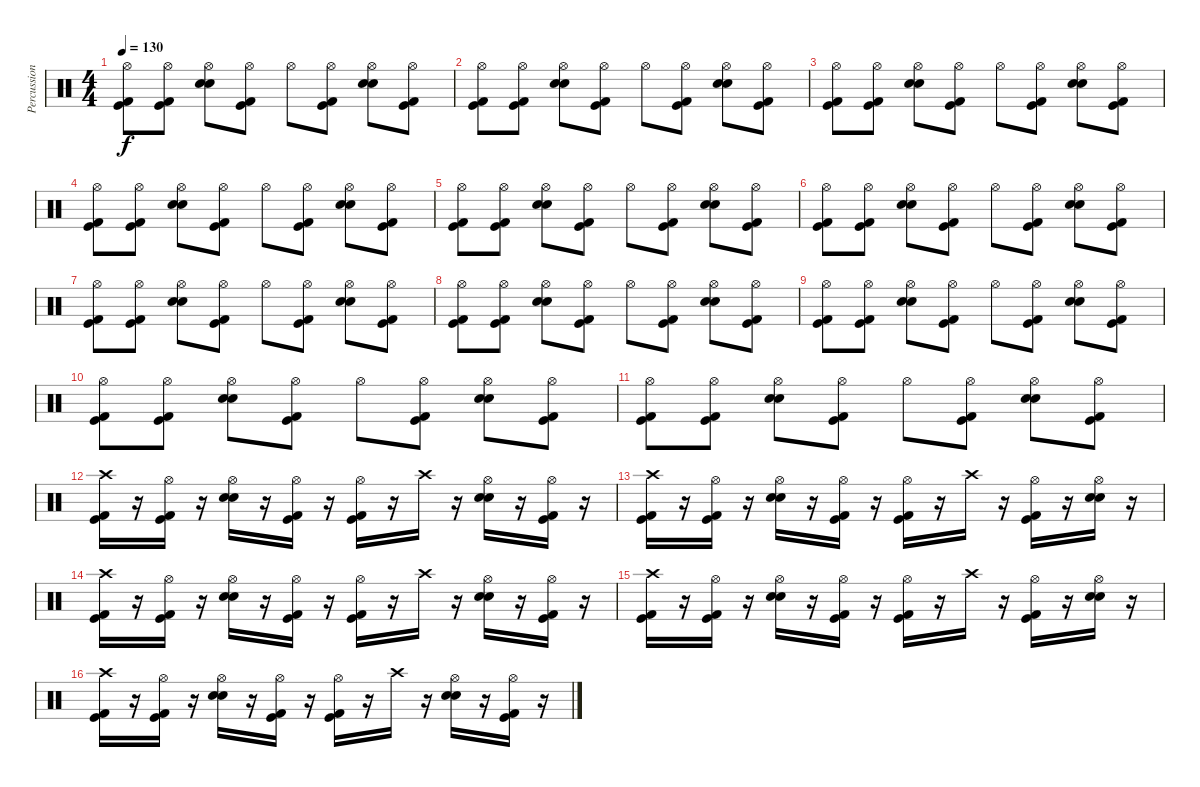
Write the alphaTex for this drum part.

\track ("Percussions" "Percussion") {instrument percussion}
\staff {score}
\articulation defaults
\ts (4 4)
\tempo 130
\clef neutral
\ks c
("Hi-Hat (open)" "Kick (hit)" "Kick (hit) 2").8{dy f} ("Hi-Hat (open)" "Kick (hit)" "Kick (hit) 2").8 ("Hi-Hat (open)" "Snare (hit) 2" "Electric Snare (hit)").8 ("Hi-Hat (open)" "Kick (hit)" "Kick (hit) 2").8 "Hi-Hat (open)".8 ("Hi-Hat (open)" "Kick (hit)" "Kick (hit) 2").8 ("Hi-Hat (open)" "Snare (hit) 2" "Electric Snare (hit)").8 ("Hi-Hat (open)" "Kick (hit)" "Kick (hit) 2").8 |
("Hi-Hat (open)" "Kick (hit)" "Kick (hit) 2").8 ("Hi-Hat (open)" "Kick (hit)" "Kick (hit) 2").8 ("Hi-Hat (open)" "Snare (hit) 2" "Electric Snare (hit)").8 ("Hi-Hat (open)" "Kick (hit)" "Kick (hit) 2").8 "Hi-Hat (open)".8 ("Hi-Hat (open)" "Kick (hit)" "Kick (hit) 2").8 ("Hi-Hat (open)" "Snare (hit) 2" "Electric Snare (hit)").8 ("Hi-Hat (open)" "Kick (hit)" "Kick (hit) 2").8 |
("Hi-Hat (open)" "Kick (hit)" "Kick (hit) 2").8 ("Hi-Hat (open)" "Kick (hit)" "Kick (hit) 2").8 ("Hi-Hat (open)" "Snare (hit) 2" "Electric Snare (hit)").8 ("Hi-Hat (open)" "Kick (hit)" "Kick (hit) 2").8 "Hi-Hat (open)".8 ("Hi-Hat (open)" "Kick (hit)" "Kick (hit) 2").8 ("Hi-Hat (open)" "Snare (hit) 2" "Electric Snare (hit)").8 ("Hi-Hat (open)" "Kick (hit)" "Kick (hit) 2").8 |
("Hi-Hat (open)" "Kick (hit)" "Kick (hit) 2").8 ("Hi-Hat (open)" "Kick (hit)" "Kick (hit) 2").8 ("Hi-Hat (open)" "Snare (hit) 2" "Electric Snare (hit)").8 ("Hi-Hat (open)" "Kick (hit)" "Kick (hit) 2").8 "Hi-Hat (open)".8 ("Hi-Hat (open)" "Kick (hit)" "Kick (hit) 2").8 ("Hi-Hat (open)" "Snare (hit) 2" "Electric Snare (hit)").8 ("Hi-Hat (open)" "Kick (hit)" "Kick (hit) 2").8 |
("Hi-Hat (open)" "Kick (hit)" "Kick (hit) 2").8 ("Hi-Hat (open)" "Kick (hit)" "Kick (hit) 2").8 ("Hi-Hat (open)" "Snare (hit) 2" "Electric Snare (hit)").8 ("Hi-Hat (open)" "Kick (hit)" "Kick (hit) 2").8 "Hi-Hat (open)".8 ("Hi-Hat (open)" "Kick (hit)" "Kick (hit) 2").8 ("Hi-Hat (open)" "Snare (hit) 2" "Electric Snare (hit)").8 ("Hi-Hat (open)" "Kick (hit)" "Kick (hit) 2").8 |
("Hi-Hat (open)" "Kick (hit)" "Kick (hit) 2").8 ("Hi-Hat (open)" "Kick (hit)" "Kick (hit) 2").8 ("Hi-Hat (open)" "Snare (hit) 2" "Electric Snare (hit)").8 ("Hi-Hat (open)" "Kick (hit)" "Kick (hit) 2").8 "Hi-Hat (open)".8 ("Hi-Hat (open)" "Kick (hit)" "Kick (hit) 2").8 ("Hi-Hat (open)" "Snare (hit) 2" "Electric Snare (hit)").8 ("Hi-Hat (open)" "Kick (hit)" "Kick (hit) 2").8 |
("Hi-Hat (open)" "Kick (hit)" "Kick (hit) 2").8 ("Hi-Hat (open)" "Kick (hit)" "Kick (hit) 2").8 ("Hi-Hat (open)" "Snare (hit) 2" "Electric Snare (hit)").8 ("Hi-Hat (open)" "Kick (hit)" "Kick (hit) 2").8 "Hi-Hat (open)".8 ("Hi-Hat (open)" "Kick (hit)" "Kick (hit) 2").8 ("Hi-Hat (open)" "Snare (hit) 2" "Electric Snare (hit)").8 ("Hi-Hat (open)" "Kick (hit)" "Kick (hit) 2").8 |
("Hi-Hat (open)" "Kick (hit)" "Kick (hit) 2").8 ("Hi-Hat (open)" "Kick (hit)" "Kick (hit) 2").8 ("Hi-Hat (open)" "Snare (hit) 2" "Electric Snare (hit)").8 ("Hi-Hat (open)" "Kick (hit)" "Kick (hit) 2").8 "Hi-Hat (open)".8 ("Hi-Hat (open)" "Kick (hit)" "Kick (hit) 2").8 ("Hi-Hat (open)" "Snare (hit) 2" "Electric Snare (hit)").8 ("Hi-Hat (open)" "Kick (hit)" "Kick (hit) 2").8 |
("Hi-Hat (open)" "Kick (hit)" "Kick (hit) 2").8 ("Hi-Hat (open)" "Kick (hit)" "Kick (hit) 2").8 ("Hi-Hat (open)" "Snare (hit) 2" "Electric Snare (hit)").8 ("Hi-Hat (open)" "Kick (hit)" "Kick (hit) 2").8 "Hi-Hat (open)".8 ("Hi-Hat (open)" "Kick (hit)" "Kick (hit) 2").8 ("Hi-Hat (open)" "Snare (hit) 2" "Electric Snare (hit)").8 ("Hi-Hat (open)" "Kick (hit)" "Kick (hit) 2").8 |
("Hi-Hat (open)" "Kick (hit)" "Kick (hit) 2").8 ("Hi-Hat (open)" "Kick (hit)" "Kick (hit) 2").8 ("Hi-Hat (open)" "Snare (hit) 2" "Electric Snare (hit)").8 ("Hi-Hat (open)" "Kick (hit)" "Kick (hit) 2").8 "Hi-Hat (open)".8 ("Hi-Hat (open)" "Kick (hit)" "Kick (hit) 2").8 ("Hi-Hat (open)" "Snare (hit) 2" "Electric Snare (hit)").8 ("Hi-Hat (open)" "Kick (hit)" "Kick (hit) 2").8 |
("Hi-Hat (open)" "Kick (hit)" "Kick (hit) 2").8 ("Hi-Hat (open)" "Kick (hit)" "Kick (hit) 2").8 ("Hi-Hat (open)" "Snare (hit) 2" "Electric Snare (hit)").8 ("Hi-Hat (open)" "Kick (hit)" "Kick (hit) 2").8 "Hi-Hat (open)".8 ("Hi-Hat (open)" "Kick (hit)" "Kick (hit) 2").8 ("Hi-Hat (open)" "Snare (hit) 2" "Electric Snare (hit)").8 ("Hi-Hat (open)" "Kick (hit)" "Kick (hit) 2").8 |
("Crash high (hit)" "Kick (hit)" "Kick (hit) 2").16 r.16 ("Hi-Hat (open)" "Kick (hit)" "Kick (hit) 2").16 r.16 ("Hi-Hat (open)" "Snare (hit) 2" "Electric Snare (hit)").16 r.16 ("Hi-Hat (open)" "Kick (hit)" "Kick (hit) 2").16 r.16 ("Hi-Hat (open)" "Kick (hit)" "Kick (hit) 2").16 r.16 "Crash high (hit)".16 r.16 ("Hi-Hat (open)" "Snare (hit) 2" "Electric Snare (hit)").16 r.16 ("Hi-Hat (open)" "Kick (hit)" "Kick (hit) 2").16 r.16 |
("Crash high (hit)" "Kick (hit)" "Kick (hit) 2").16 r.16 ("Hi-Hat (open)" "Kick (hit)" "Kick (hit) 2").16 r.16 ("Hi-Hat (open)" "Snare (hit) 2" "Electric Snare (hit)").16 r.16 ("Hi-Hat (open)" "Kick (hit)" "Kick (hit) 2").16 r.16 ("Hi-Hat (open)" "Kick (hit)" "Kick (hit) 2").16 r.16 "Crash high (hit)".16 r.16 ("Hi-Hat (open)" "Kick (hit)" "Kick (hit) 2").16 r.16 ("Hi-Hat (open)" "Snare (hit) 2" "Electric Snare (hit)").16 r.16 |
("Crash high (hit)" "Kick (hit)" "Kick (hit) 2").16 r.16 ("Hi-Hat (open)" "Kick (hit)" "Kick (hit) 2").16 r.16 ("Hi-Hat (open)" "Snare (hit) 2" "Electric Snare (hit)").16 r.16 ("Hi-Hat (open)" "Kick (hit)" "Kick (hit) 2").16 r.16 ("Hi-Hat (open)" "Kick (hit)" "Kick (hit) 2").16 r.16 "Crash high (hit)".16 r.16 ("Hi-Hat (open)" "Snare (hit) 2" "Electric Snare (hit)").16 r.16 ("Hi-Hat (open)" "Kick (hit)" "Kick (hit) 2").16 r.16 |
("Crash high (hit)" "Kick (hit)" "Kick (hit) 2").16 r.16 ("Hi-Hat (open)" "Kick (hit)" "Kick (hit) 2").16 r.16 ("Hi-Hat (open)" "Snare (hit) 2" "Electric Snare (hit)").16 r.16 ("Hi-Hat (open)" "Kick (hit)" "Kick (hit) 2").16 r.16 ("Hi-Hat (open)" "Kick (hit)" "Kick (hit) 2").16 r.16 "Crash high (hit)".16 r.16 ("Hi-Hat (open)" "Kick (hit)" "Kick (hit) 2").16 r.16 ("Hi-Hat (open)" "Snare (hit) 2" "Electric Snare (hit)").16 r.16 |
("Crash high (hit)" "Kick (hit)" "Kick (hit) 2").16 r.16 ("Hi-Hat (open)" "Kick (hit)" "Kick (hit) 2").16 r.16 ("Hi-Hat (open)" "Snare (hit) 2" "Electric Snare (hit)").16 r.16 ("Hi-Hat (open)" "Kick (hit)" "Kick (hit) 2").16 r.16 ("Hi-Hat (open)" "Kick (hit)" "Kick (hit) 2").16 r.16 "Crash high (hit)".16 r.16 ("Hi-Hat (open)" "Snare (hit) 2" "Electric Snare (hit)").16 r.16 ("Hi-Hat (open)" "Kick (hit)" "Kick (hit) 2").16 r.16
